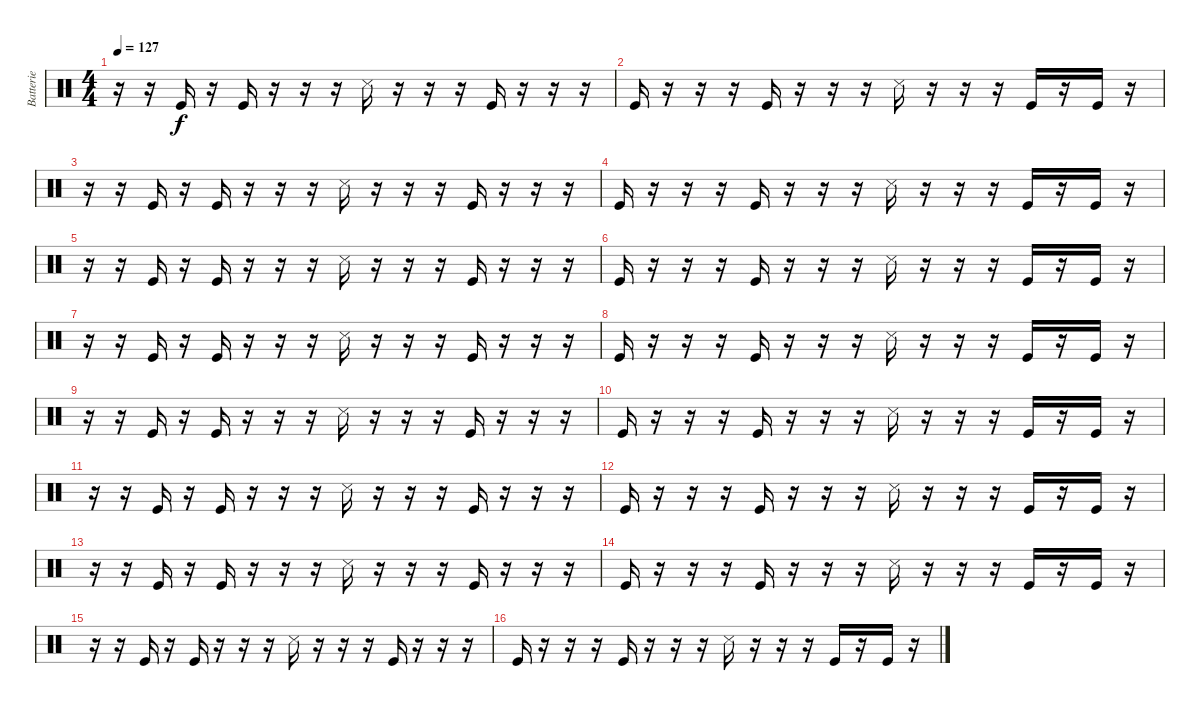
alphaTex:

\track ("Batterie" "Batterie") {instrument percussion}
\staff {score}
\articulation defaults
\ts (4 4)
\tempo 127
\clef neutral
\ks c
r.16{dy f} r.16 "Kick (hit)".16 r.16 "Kick (hit)".16 r.16 r.16 r.16 "Snare (side stick) 3".16 r.16 r.16 r.16 "Kick (hit)".16 r.16 r.16 r.16 |
"Kick (hit)".16 r.16 r.16 r.16 "Kick (hit)".16 r.16 r.16 r.16 "Snare (side stick) 3".16 r.16 r.16 r.16 "Kick (hit)".16 r.16 "Kick (hit)".16 r.16 |
r.16 r.16 "Kick (hit)".16 r.16 "Kick (hit)".16 r.16 r.16 r.16 "Snare (side stick) 3".16 r.16 r.16 r.16 "Kick (hit)".16 r.16 r.16 r.16 |
"Kick (hit)".16 r.16 r.16 r.16 "Kick (hit)".16 r.16 r.16 r.16 "Snare (side stick) 3".16 r.16 r.16 r.16 "Kick (hit)".16 r.16 "Kick (hit)".16 r.16 |
r.16 r.16 "Kick (hit)".16 r.16 "Kick (hit)".16 r.16 r.16 r.16 "Snare (side stick) 3".16 r.16 r.16 r.16 "Kick (hit)".16 r.16 r.16 r.16 |
"Kick (hit)".16 r.16 r.16 r.16 "Kick (hit)".16 r.16 r.16 r.16 "Snare (side stick) 3".16 r.16 r.16 r.16 "Kick (hit)".16 r.16 "Kick (hit)".16 r.16 |
r.16 r.16 "Kick (hit)".16 r.16 "Kick (hit)".16 r.16 r.16 r.16 "Snare (side stick) 3".16 r.16 r.16 r.16 "Kick (hit)".16 r.16 r.16 r.16 |
"Kick (hit)".16 r.16 r.16 r.16 "Kick (hit)".16 r.16 r.16 r.16 "Snare (side stick) 3".16 r.16 r.16 r.16 "Kick (hit)".16 r.16 "Kick (hit)".16 r.16 |
r.16 r.16 "Kick (hit)".16 r.16 "Kick (hit)".16 r.16 r.16 r.16 "Snare (side stick) 3".16 r.16 r.16 r.16 "Kick (hit)".16 r.16 r.16 r.16 |
"Kick (hit)".16 r.16 r.16 r.16 "Kick (hit)".16 r.16 r.16 r.16 "Snare (side stick) 3".16 r.16 r.16 r.16 "Kick (hit)".16 r.16 "Kick (hit)".16 r.16 |
r.16 r.16 "Kick (hit)".16 r.16 "Kick (hit)".16 r.16 r.16 r.16 "Snare (side stick) 3".16 r.16 r.16 r.16 "Kick (hit)".16 r.16 r.16 r.16 |
"Kick (hit)".16 r.16 r.16 r.16 "Kick (hit)".16 r.16 r.16 r.16 "Snare (side stick) 3".16 r.16 r.16 r.16 "Kick (hit)".16 r.16 "Kick (hit)".16 r.16 |
r.16 r.16 "Kick (hit)".16 r.16 "Kick (hit)".16 r.16 r.16 r.16 "Snare (side stick) 3".16 r.16 r.16 r.16 "Kick (hit)".16 r.16 r.16 r.16 |
"Kick (hit)".16 r.16 r.16 r.16 "Kick (hit)".16 r.16 r.16 r.16 "Snare (side stick) 3".16 r.16 r.16 r.16 "Kick (hit)".16 r.16 "Kick (hit)".16 r.16 |
r.16 r.16 "Kick (hit)".16 r.16 "Kick (hit)".16 r.16 r.16 r.16 "Snare (side stick) 3".16 r.16 r.16 r.16 "Kick (hit)".16 r.16 r.16 r.16 |
"Kick (hit)".16 r.16 r.16 r.16 "Kick (hit)".16 r.16 r.16 r.16 "Snare (side stick) 3".16 r.16 r.16 r.16 "Kick (hit)".16 r.16 "Kick (hit)".16 r.16
